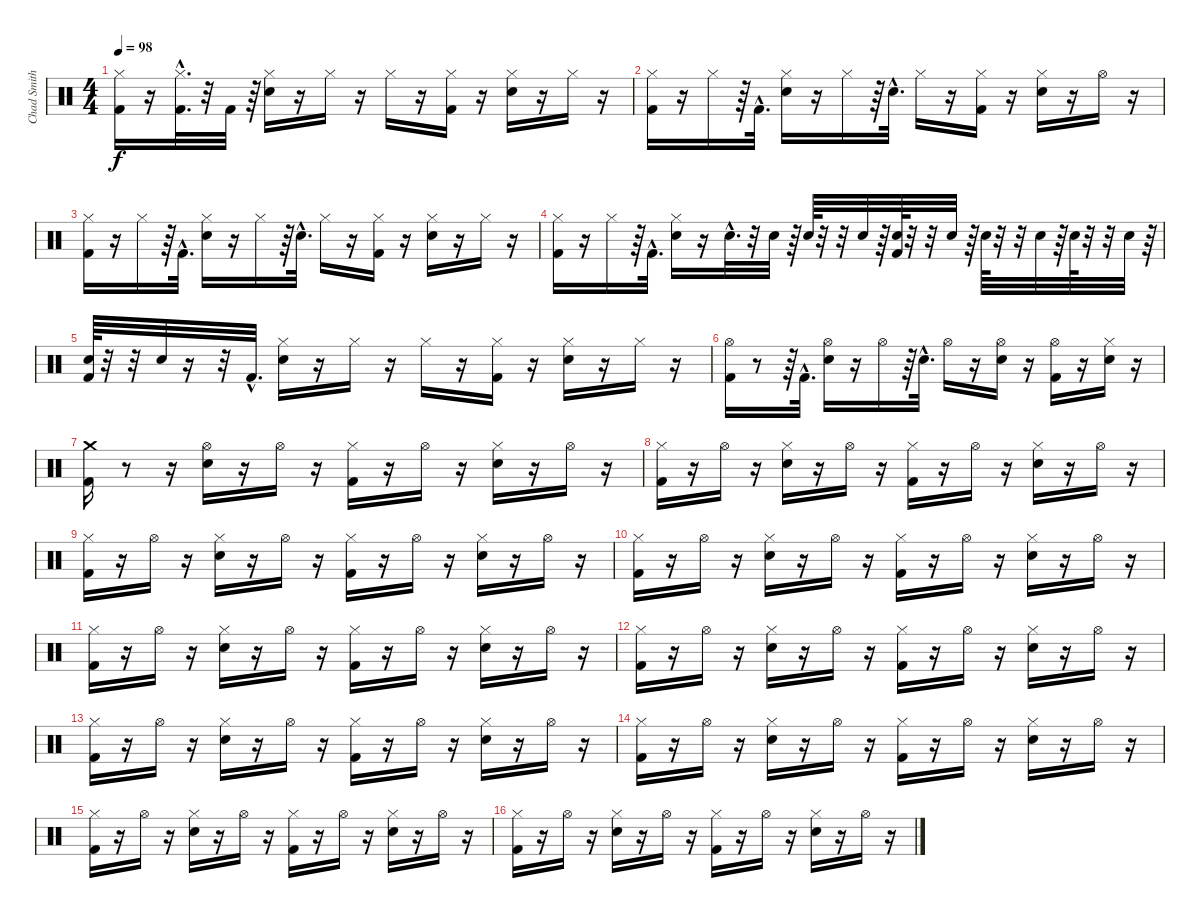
\track ("Chad Smith" "Chad Smith") {instrument percussion}
\staff {score}
\articulation defaults
\ts (4 4)
\tempo 98
\clef neutral
\ks c
("Kick (hit) 2" "Hi-Hat (closed)").16{dy f} r.16 ("Kick (hit) 2"{hac} "Hi-Hat (closed)"{hac}).32{d} r.32 "Kick (hit) 2".32 r.64 ("Hi-Hat (closed)" "Electric Snare (hit)").16 r.16 "Hi-Hat (closed)".16 r.16 "Hi-Hat (closed)".16 r.16 ("Hi-Hat (closed)" "Kick (hit) 2").16 r.16 ("Hi-Hat (closed)" "Electric Snare (hit)").16 r.16 "Hi-Hat (closed)".16 r.16 |
("Kick (hit) 2" "Hi-Hat (closed)").16 r.16 "Hi-Hat (closed)".16 r.64 "Kick (hit) 2"{hac}.32{d} ("Hi-Hat (closed)" "Electric Snare (hit)").16 r.16 "Hi-Hat (closed)".16 r.64 "Electric Snare (hit)"{hac}.32{d} "Hi-Hat (closed)".16 r.16 ("Hi-Hat (closed)" "Kick (hit) 2").16 r.16 ("Hi-Hat (closed)" "Electric Snare (hit)").16 r.16 "Hi-Hat (open)".16 r.16 |
("Kick (hit) 2" "Hi-Hat (closed)").16 r.16 "Hi-Hat (closed)".16 r.64 "Kick (hit) 2"{hac}.32{d} ("Hi-Hat (closed)" "Electric Snare (hit)").16 r.16 "Hi-Hat (closed)".16 r.64 "Electric Snare (hit)"{hac}.32{d} "Hi-Hat (closed)".16 r.16 ("Hi-Hat (closed)" "Kick (hit) 2").16 r.16 ("Hi-Hat (closed)" "Electric Snare (hit)").16 r.16 "Hi-Hat (closed)".16 r.16 |
("Kick (hit) 2" "Hi-Hat (closed)").16 r.16 "Hi-Hat (closed)".16 r.64 "Kick (hit) 2"{hac}.32{d} ("Hi-Hat (closed)" "Electric Snare (hit)").16 r.16 "Electric Snare (hit)"{hac}.32{d} r.32 "Electric Snare (hit)".32 r.64 "Electric Snare (hit)".64 r.32 r.32 "Electric Snare (hit)".32 r.64 ("Electric Snare (hit)" "Kick (hit) 2").64 r.32 r.32 "Electric Snare (hit)".32 r.64 "Electric Snare (hit)".64 r.32 r.32 "Electric Snare (hit)".32 r.64 "Electric Snare (hit)".64 r.32 r.32 "Electric Snare (hit)".32 r.64 |
("Electric Snare (hit)" "Kick (hit) 2").64 r.32 r.32 "Electric Snare (hit)".32 r.16 r.32 "Kick (hit) 2"{hac}.32{d} ("Hi-Hat (closed)" "Electric Snare (hit)").16 r.16 "Hi-Hat (closed)".16 r.16 "Hi-Hat (closed)".16 r.16 ("Hi-Hat (closed)" "Kick (hit) 2").16 r.16 ("Hi-Hat (closed)" "Electric Snare (hit)").16 r.16 "Hi-Hat (closed)".16 r.16 |
("Kick (hit) 2" "Hi-Hat (open)").16 r.8 r.64 "Kick (hit) 2"{hac}.32{d} ("Hi-Hat (open)" "Electric Snare (hit)").16 r.16 "Hi-Hat (open)".16 r.64 "Electric Snare (hit)"{hac}.32{d} "Hi-Hat (open)".16 r.16 ("Hi-Hat (open)" "Electric Snare (hit)").16 r.16 ("Kick (hit) 2" "Hi-Hat (open)").16 r.16 ("Electric Snare (hit)" "Hi-Hat (closed)").16 r.16 |
("Crash medium (hit)" "Kick (hit) 2").16 r.8 r.16 ("Hi-Hat (open)" "Electric Snare (hit)").16 r.16 "Hi-Hat (open)".16 r.16 ("Kick (hit) 2" "Hi-Hat (closed)").16 r.16 "Hi-Hat (open)".16 r.16 ("Electric Snare (hit)" "Hi-Hat (closed)").16 r.16 "Hi-Hat (open)".16 r.16 |
("Hi-Hat (closed)" "Kick (hit) 2").16 r.16 "Hi-Hat (open)".16 r.16 ("Hi-Hat (closed)" "Electric Snare (hit)").16 r.16 "Hi-Hat (open)".16 r.16 ("Kick (hit) 2" "Hi-Hat (closed)").16 r.16 "Hi-Hat (open)".16 r.16 ("Electric Snare (hit)" "Hi-Hat (closed)").16 r.16 "Hi-Hat (open)".16 r.16 |
("Hi-Hat (closed)" "Kick (hit) 2").16 r.16 "Hi-Hat (open)".16 r.16 ("Hi-Hat (closed)" "Electric Snare (hit)").16 r.16 "Hi-Hat (open)".16 r.16 ("Kick (hit) 2" "Hi-Hat (closed)").16 r.16 "Hi-Hat (open)".16 r.16 ("Electric Snare (hit)" "Hi-Hat (closed)").16 r.16 "Hi-Hat (open)".16 r.16 |
("Hi-Hat (closed)" "Kick (hit) 2").16 r.16 "Hi-Hat (open)".16 r.16 ("Hi-Hat (closed)" "Electric Snare (hit)").16 r.16 "Hi-Hat (open)".16 r.16 ("Kick (hit) 2" "Hi-Hat (closed)").16 r.16 "Hi-Hat (open)".16 r.16 ("Electric Snare (hit)" "Hi-Hat (closed)").16 r.16 "Hi-Hat (open)".16 r.16 |
("Hi-Hat (closed)" "Kick (hit) 2").16 r.16 "Hi-Hat (open)".16 r.16 ("Hi-Hat (closed)" "Electric Snare (hit)").16 r.16 "Hi-Hat (open)".16 r.16 ("Kick (hit) 2" "Hi-Hat (closed)").16 r.16 "Hi-Hat (open)".16 r.16 ("Electric Snare (hit)" "Hi-Hat (closed)").16 r.16 "Hi-Hat (open)".16 r.16 |
("Hi-Hat (closed)" "Kick (hit) 2").16 r.16 "Hi-Hat (open)".16 r.16 ("Hi-Hat (closed)" "Electric Snare (hit)").16 r.16 "Hi-Hat (open)".16 r.16 ("Kick (hit) 2" "Hi-Hat (closed)").16 r.16 "Hi-Hat (open)".16 r.16 ("Electric Snare (hit)" "Hi-Hat (closed)").16 r.16 "Hi-Hat (open)".16 r.16 |
("Hi-Hat (closed)" "Kick (hit) 2").16 r.16 "Hi-Hat (open)".16 r.16 ("Hi-Hat (closed)" "Electric Snare (hit)").16 r.16 "Hi-Hat (open)".16 r.16 ("Kick (hit) 2" "Hi-Hat (closed)").16 r.16 "Hi-Hat (open)".16 r.16 ("Electric Snare (hit)" "Hi-Hat (closed)").16 r.16 "Hi-Hat (open)".16 r.16 |
("Hi-Hat (closed)" "Kick (hit) 2").16 r.16 "Hi-Hat (open)".16 r.16 ("Hi-Hat (closed)" "Electric Snare (hit)").16 r.16 "Hi-Hat (open)".16 r.16 ("Kick (hit) 2" "Hi-Hat (closed)").16 r.16 "Hi-Hat (open)".16 r.16 ("Electric Snare (hit)" "Hi-Hat (closed)").16 r.16 "Hi-Hat (open)".16 r.16 |
("Hi-Hat (closed)" "Kick (hit) 2").16 r.16 "Hi-Hat (open)".16 r.16 ("Hi-Hat (closed)" "Electric Snare (hit)").16 r.16 "Hi-Hat (open)".16 r.16 ("Kick (hit) 2" "Hi-Hat (closed)").16 r.16 "Hi-Hat (open)".16 r.16 ("Electric Snare (hit)" "Hi-Hat (closed)").16 r.16 "Hi-Hat (open)".16 r.16 |
("Hi-Hat (closed)" "Kick (hit) 2").16 r.16 "Hi-Hat (open)".16 r.16 ("Hi-Hat (closed)" "Electric Snare (hit)").16 r.16 "Hi-Hat (open)".16 r.16 ("Kick (hit) 2" "Hi-Hat (closed)").16 r.16 "Hi-Hat (open)".16 r.16 ("Electric Snare (hit)" "Hi-Hat (closed)").16 r.16 "Hi-Hat (open)".16 r.16
